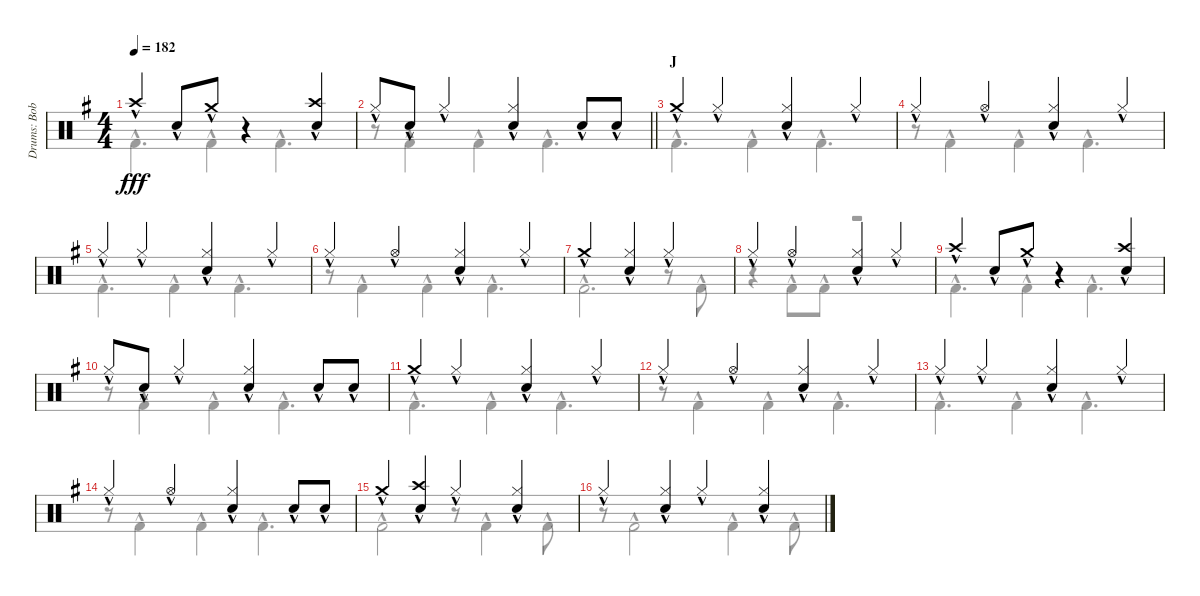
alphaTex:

\track ("Drums: Bobby" "Drums: Bob") {instrument percussion}
\staff {score}
\articulation defaults
\voice
\ts (4 4)
\tempo 182
\clef neutral
\ks g "Crash high (hit)"{hac}.4{dy fff} "Snare (hit) 2"{hac}.8 "Crash medium (hit)"{hac}.8
r.4 ("Crash high (hit)"{hac} "Snare (hit) 2"{hac}).4 |
\barLineRight lightlight "Hi-Hat (closed)"{hac}.8 "Snare (hit) 2"{hac}.8 "Hi-Hat (closed)"{hac}.4
("Hi-Hat (closed)"{hac} "Snare (hit) 2"{hac}).4 "Electric Snare (hit)"{hac}.8 "Electric Snare (hit)"{hac}.8 |
\section ("" "J")
"Crash medium (hit)"{hac}.4 "Hi-Hat (closed)"{hac}.4 ("Hi-Hat (closed)"{hac} "Snare (hit) 2"{hac}).4 "Hi-Hat (closed)"{hac}.4 |
"Hi-Hat (closed)"{hac}.4 "Hi-Hat (open)"{hac}.4 ("Hi-Hat (closed)"{hac} "Snare (hit) 2"{hac}).4 "Hi-Hat (closed)"{hac}.4 |
"Hi-Hat (closed)"{hac}.4 "Hi-Hat (closed)"{hac}.4 ("Hi-Hat (closed)"{hac} "Snare (hit) 2"{hac}).4 "Hi-Hat (closed)"{hac}.4 |
"Hi-Hat (closed)"{hac}.4 "Hi-Hat (open)"{hac}.4 ("Hi-Hat (closed)"{hac} "Snare (hit) 2"{hac}).4 "Hi-Hat (closed)"{hac}.4 |
"Crash medium (hit)"{hac}.2 ("Hi-Hat (closed)"{hac} "Snare (hit) 2"{hac}).4 "Hi-Hat (closed)"{hac}.4 |
"Hi-Hat (closed)"{hac}.4 "Hi-Hat (open)"{hac}.4 ("Hi-Hat (closed)"{hac} "Snare (hit) 2"{hac}).4 "Hi-Hat (closed)"{hac}.4 |
"Crash high (hit)"{hac}.4 "Snare (hit) 2"{hac}.8 "Crash medium (hit)"{hac}.8 r.4 ("Crash high (hit)"{hac} "Snare (hit) 2"{hac}).4 |
"Hi-Hat (closed)"{hac}.8 "Snare (hit) 2"{hac}.8 "Hi-Hat (closed)"{hac}.4 ("Hi-Hat (closed)"{hac} "Snare (hit) 2"{hac}).4 "Electric Snare (hit)"{hac}.8 "Electric Snare (hit)"{hac}.8 |
"Crash medium (hit)"{hac}.4 "Hi-Hat (closed)"{hac}.4 ("Hi-Hat (closed)"{hac} "Snare (hit) 2"{hac}).4 "Hi-Hat (closed)"{hac}.4 |
"Hi-Hat (closed)"{hac}.4 "Hi-Hat (open)"{hac}.4 ("Hi-Hat (closed)"{hac} "Snare (hit) 2"{hac}).4 "Hi-Hat (closed)"{hac}.4 |
"Hi-Hat (closed)"{hac}.4 "Hi-Hat (closed)"{hac}.4 ("Hi-Hat (closed)"{hac} "Snare (hit) 2"{hac}).4 "Hi-Hat (closed)"{hac}.4 |
"Hi-Hat (closed)"{hac}.4 "Hi-Hat (open)"{hac}.4 ("Hi-Hat (closed)"{hac} "Snare (hit) 2"{hac}).4 "Electric Snare (hit)"{hac}.8 "Electric Snare (hit)"{hac}.8 |
"Crash medium (hit)"{hac}.4 ("Crash high (hit)"{hac} "Snare (hit) 2"{hac}).4 "Hi-Hat (closed)"{hac}.4 ("Hi-Hat (closed)"{hac} "Snare (hit) 2"{hac}).4 |
"Hi-Hat (closed)"{hac}.4 ("Hi-Hat (closed)"{hac} "Snare (hit) 2"{hac}).4 "Hi-Hat (closed)"{hac}.4 ("Hi-Hat (closed)"{hac} "Snare (hit) 2"{hac}).4
\voice
\clef neutral
\ottava regular
\simile none
\ks g "Kick (hit) 2"{hac}.4{d dy fff} "Kick (hit) 2"{hac}.4 "Kick (hit) 2"{hac}.4{d}
|
\barLineRight lightlight
r.8 "Kick (hit) 2"{hac}.4 "Kick (hit) 2"{hac}.4 "Kick (hit) 2"{hac}.4{d} |
"Kick (hit) 2"{hac}.4{d} "Kick (hit) 2"{hac}.4 "Kick (hit) 2"{hac}.4{d} |
r.8 "Kick (hit) 2"{hac}.4 "Kick (hit) 2"{hac}.4 "Kick (hit) 2"{hac}.4{d} |
"Kick (hit) 2"{hac}.4{d} "Kick (hit) 2"{hac}.4 "Kick (hit) 2"{hac}.4{d} |
r.8 "Kick (hit) 2"{hac}.4 "Kick (hit) 2"{hac}.4 "Kick (hit) 2"{hac}.4{d} |
"Kick (hit) 2"{hac}.2{d} r.8 "Kick (hit) 2"{hac}.8 |
r.4 "Kick (hit) 2"{hac}.8 "Kick (hit) 2"{hac}.8 r.2 |
"Kick (hit) 2"{hac}.4{d} "Kick (hit) 2"{hac}.4 "Kick (hit) 2"{hac}.4{d} |
r.8 "Kick (hit) 2"{hac}.4 "Kick (hit) 2"{hac}.4 "Kick (hit) 2"{hac}.4{d} |
"Kick (hit) 2"{hac}.4{d} "Kick (hit) 2"{hac}.4 "Kick (hit) 2"{hac}.4{d} |
r.8 "Kick (hit) 2"{hac}.4 "Kick (hit) 2"{hac}.4 "Kick (hit) 2"{hac}.4{d} |
"Kick (hit) 2"{hac}.4{d} "Kick (hit) 2"{hac}.4 "Kick (hit) 2"{hac}.4{d} |
r.8 "Kick (hit) 2"{hac}.4 "Kick (hit) 2"{hac}.4 "Kick (hit) 2"{hac}.4{d} |
"Kick (hit) 2"{hac}.2 r.8 "Kick (hit) 2"{hac}.4 "Kick (hit) 2"{hac}.8 |
r.8 "Kick (hit) 2"{hac}.2 "Kick (hit) 2"{hac}.4 "Kick (hit) 2"{hac}.8
